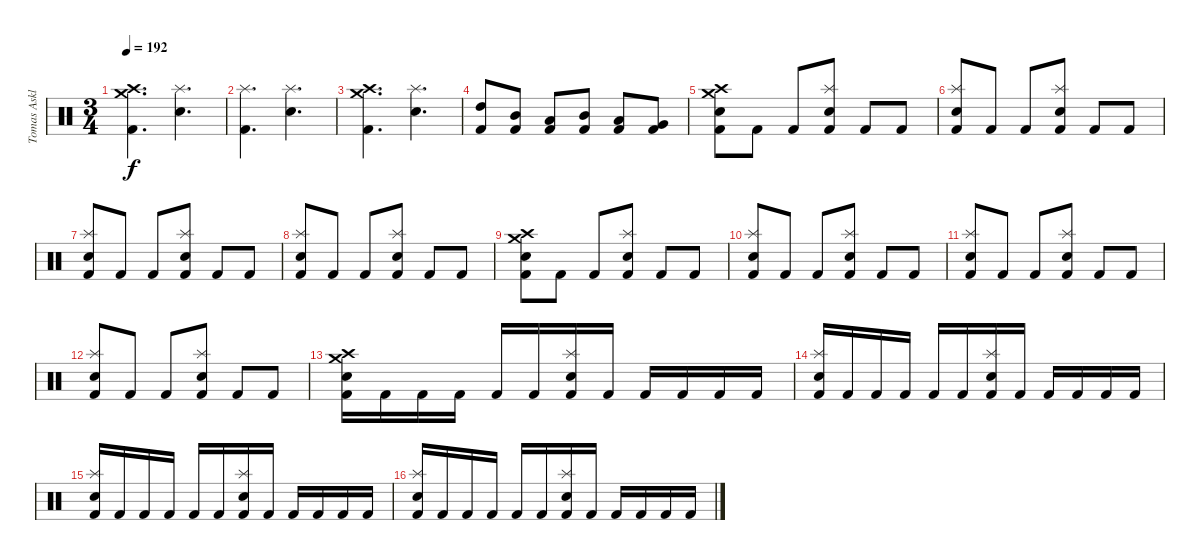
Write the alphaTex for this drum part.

\track ("Tomas Asklund" "Tomas Askl") {instrument percussion}
\staff {score}
\articulation defaults
\ts (3 4)
\tempo 192
\clef neutral
\ks c
("Crash medium (hit)" "Crash high (hit)" "Kick (hit) 2").4{d dy f} ("Splash (hit)" "Snare (hit) 2").4{d} |
("Splash (hit)" "Kick (hit) 2").4{d} ("Splash (hit)" "Snare (hit) 2").4{d} |
("Crash medium (hit)" "Crash high (hit)" "Kick (hit) 2").4{d} ("Splash (hit)" "Snare (hit) 2").4{d} |
("High Tom (hit)" "Kick (hit) 2").8 ("Mid Tom (hit)" "Kick (hit) 2").8 ("Low Tom (hit)" "Kick (hit) 2").8 ("Mid Tom (hit)" "Kick (hit) 2").8 ("Low Tom (hit)" "Kick (hit) 2").8 ("Very Low Tom (hit)" "Kick (hit) 2").8 |
("Crash medium (hit)" "Crash high (hit)" "Snare (hit) 2" "Kick (hit) 2").8 "Kick (hit) 2".8 "Kick (hit) 2".8 ("Splash (hit)" "Snare (hit) 2" "Kick (hit) 2").8 "Kick (hit) 2".8 "Kick (hit) 2".8 |
("Splash (hit)" "Snare (hit) 2" "Kick (hit) 2").8 "Kick (hit) 2".8 "Kick (hit) 2".8 ("Splash (hit)" "Snare (hit) 2" "Kick (hit) 2").8 "Kick (hit) 2".8 "Kick (hit) 2".8 |
("Splash (hit)" "Snare (hit) 2" "Kick (hit) 2").8 "Kick (hit) 2".8 "Kick (hit) 2".8 ("Splash (hit)" "Snare (hit) 2" "Kick (hit) 2").8 "Kick (hit) 2".8 "Kick (hit) 2".8 |
("Splash (hit)" "Snare (hit) 2" "Kick (hit) 2").8 "Kick (hit) 2".8 "Kick (hit) 2".8 ("Splash (hit)" "Snare (hit) 2" "Kick (hit) 2").8 "Kick (hit) 2".8 "Kick (hit) 2".8 |
("Crash medium (hit)" "Crash high (hit)" "Snare (hit) 2" "Kick (hit) 2").8 "Kick (hit) 2".8 "Kick (hit) 2".8 ("Splash (hit)" "Snare (hit) 2" "Kick (hit) 2").8 "Kick (hit) 2".8 "Kick (hit) 2".8 |
("Splash (hit)" "Snare (hit) 2" "Kick (hit) 2").8 "Kick (hit) 2".8 "Kick (hit) 2".8 ("Splash (hit)" "Snare (hit) 2" "Kick (hit) 2").8 "Kick (hit) 2".8 "Kick (hit) 2".8 |
("Splash (hit)" "Snare (hit) 2" "Kick (hit) 2").8 "Kick (hit) 2".8 "Kick (hit) 2".8 ("Splash (hit)" "Snare (hit) 2" "Kick (hit) 2").8 "Kick (hit) 2".8 "Kick (hit) 2".8 |
("Splash (hit)" "Snare (hit) 2" "Kick (hit) 2").8 "Kick (hit) 2".8 "Kick (hit) 2".8 ("Splash (hit)" "Snare (hit) 2" "Kick (hit) 2").8 "Kick (hit) 2".8 "Kick (hit) 2".8 |
("Crash medium (hit)" "Crash high (hit)" "Snare (hit) 2" "Kick (hit) 2").16 "Kick (hit) 2".16 "Kick (hit) 2".16 "Kick (hit) 2".16 "Kick (hit) 2".16 "Kick (hit) 2".16 ("Splash (hit)" "Snare (hit) 2" "Kick (hit) 2").16 "Kick (hit) 2".16 "Kick (hit) 2".16 "Kick (hit) 2".16 "Kick (hit) 2".16 "Kick (hit) 2".16 |
("Splash (hit)" "Snare (hit) 2" "Kick (hit) 2").16 "Kick (hit) 2".16 "Kick (hit) 2".16 "Kick (hit) 2".16 "Kick (hit) 2".16 "Kick (hit) 2".16 ("Splash (hit)" "Snare (hit) 2" "Kick (hit) 2").16 "Kick (hit) 2".16 "Kick (hit) 2".16 "Kick (hit) 2".16 "Kick (hit) 2".16 "Kick (hit) 2".16 |
("Splash (hit)" "Snare (hit) 2" "Kick (hit) 2").16 "Kick (hit) 2".16 "Kick (hit) 2".16 "Kick (hit) 2".16 "Kick (hit) 2".16 "Kick (hit) 2".16 ("Splash (hit)" "Snare (hit) 2" "Kick (hit) 2").16 "Kick (hit) 2".16 "Kick (hit) 2".16 "Kick (hit) 2".16 "Kick (hit) 2".16 "Kick (hit) 2".16 |
("Splash (hit)" "Snare (hit) 2" "Kick (hit) 2").16 "Kick (hit) 2".16 "Kick (hit) 2".16 "Kick (hit) 2".16 "Kick (hit) 2".16 "Kick (hit) 2".16 ("Splash (hit)" "Snare (hit) 2" "Kick (hit) 2").16 "Kick (hit) 2".16 "Kick (hit) 2".16 "Kick (hit) 2".16 "Kick (hit) 2".16 "Kick (hit) 2".16
